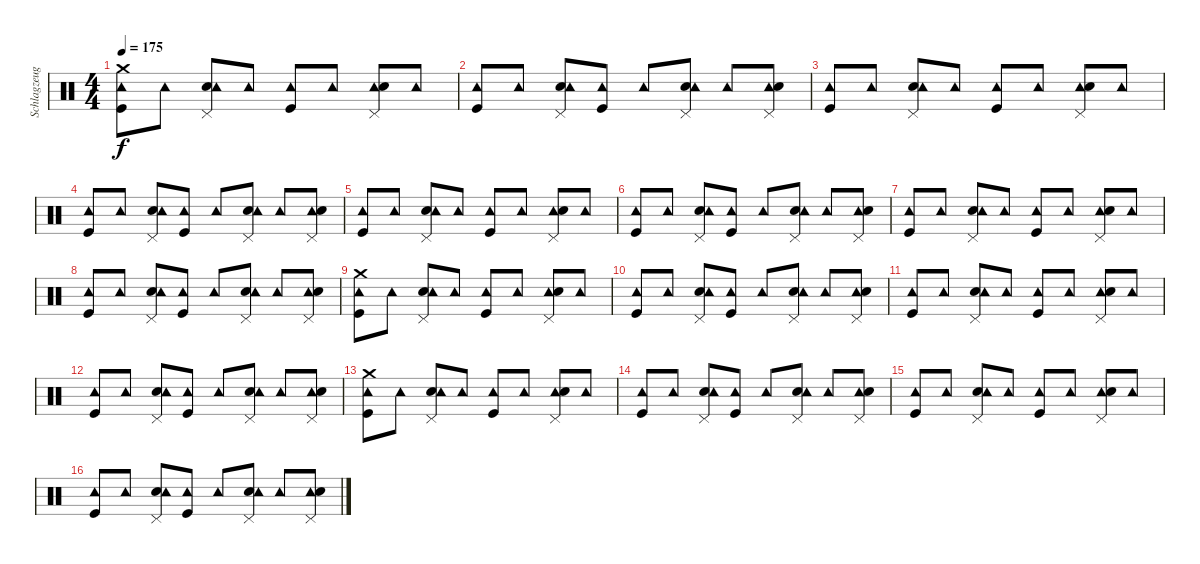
\track ("Schlagzeug - Bela B." "Schlagzeug") {instrument percussion}
\staff {score}
\articulation defaults
\ts (4 4)
\tempo 175
\clef neutral
\ks c
("Tambourine (hit)" "Kick (hit)" "Crash medium (hit)").8{dy f} "Tambourine (hit)".8 ("Electric Snare (hit)" "Tambourine (hit)" "Pedal Hi-Hat (hit)").8 "Tambourine (hit)".8 ("Tambourine (hit)" "Kick (hit)").8 "Tambourine (hit)".8 ("Pedal Hi-Hat (hit)" "Tambourine (hit)" "Electric Snare (hit)").8 "Tambourine (hit)".8 |
("Tambourine (hit)" "Kick (hit)").8 "Tambourine (hit)".8 ("Electric Snare (hit)" "Tambourine (hit)" "Pedal Hi-Hat (hit)").8 ("Tambourine (hit)" "Kick (hit)").8 "Tambourine (hit)".8 ("Electric Snare (hit)" "Pedal Hi-Hat (hit)" "Tambourine (hit)").8 "Tambourine (hit)".8 ("Tambourine (hit)" "Electric Snare (hit)" "Pedal Hi-Hat (hit)").8 |
("Tambourine (hit)" "Kick (hit)").8 "Tambourine (hit)".8 ("Electric Snare (hit)" "Tambourine (hit)" "Pedal Hi-Hat (hit)").8 "Tambourine (hit)".8 ("Tambourine (hit)" "Kick (hit)").8 "Tambourine (hit)".8 ("Pedal Hi-Hat (hit)" "Tambourine (hit)" "Electric Snare (hit)").8 "Tambourine (hit)".8 |
("Tambourine (hit)" "Kick (hit)").8 "Tambourine (hit)".8 ("Electric Snare (hit)" "Tambourine (hit)" "Pedal Hi-Hat (hit)").8 ("Tambourine (hit)" "Kick (hit)").8 "Tambourine (hit)".8 ("Electric Snare (hit)" "Pedal Hi-Hat (hit)" "Tambourine (hit)").8 "Tambourine (hit)".8 ("Tambourine (hit)" "Electric Snare (hit)" "Pedal Hi-Hat (hit)").8 |
("Tambourine (hit)" "Kick (hit)").8 "Tambourine (hit)".8 ("Electric Snare (hit)" "Tambourine (hit)" "Pedal Hi-Hat (hit)").8 "Tambourine (hit)".8 ("Tambourine (hit)" "Kick (hit)").8 "Tambourine (hit)".8 ("Pedal Hi-Hat (hit)" "Tambourine (hit)" "Electric Snare (hit)").8 "Tambourine (hit)".8 |
("Tambourine (hit)" "Kick (hit)").8 "Tambourine (hit)".8 ("Electric Snare (hit)" "Tambourine (hit)" "Pedal Hi-Hat (hit)").8 ("Tambourine (hit)" "Kick (hit)").8 "Tambourine (hit)".8 ("Electric Snare (hit)" "Pedal Hi-Hat (hit)" "Tambourine (hit)").8 "Tambourine (hit)".8 ("Tambourine (hit)" "Electric Snare (hit)" "Pedal Hi-Hat (hit)").8 |
("Tambourine (hit)" "Kick (hit)").8 "Tambourine (hit)".8 ("Electric Snare (hit)" "Tambourine (hit)" "Pedal Hi-Hat (hit)").8 "Tambourine (hit)".8 ("Tambourine (hit)" "Kick (hit)").8 "Tambourine (hit)".8 ("Pedal Hi-Hat (hit)" "Tambourine (hit)" "Electric Snare (hit)").8 "Tambourine (hit)".8 |
("Tambourine (hit)" "Kick (hit)").8 "Tambourine (hit)".8 ("Electric Snare (hit)" "Tambourine (hit)" "Pedal Hi-Hat (hit)").8 ("Tambourine (hit)" "Kick (hit)").8 "Tambourine (hit)".8 ("Electric Snare (hit)" "Pedal Hi-Hat (hit)" "Tambourine (hit)").8 "Tambourine (hit)".8 ("Tambourine (hit)" "Electric Snare (hit)" "Pedal Hi-Hat (hit)").8 |
("Tambourine (hit)" "Kick (hit)" "Crash medium (hit)").8 "Tambourine (hit)".8 ("Electric Snare (hit)" "Tambourine (hit)" "Pedal Hi-Hat (hit)").8 "Tambourine (hit)".8 ("Tambourine (hit)" "Kick (hit)").8 "Tambourine (hit)".8 ("Pedal Hi-Hat (hit)" "Tambourine (hit)" "Electric Snare (hit)").8 "Tambourine (hit)".8 |
("Tambourine (hit)" "Kick (hit)").8 "Tambourine (hit)".8 ("Electric Snare (hit)" "Tambourine (hit)" "Pedal Hi-Hat (hit)").8 ("Tambourine (hit)" "Kick (hit)").8 "Tambourine (hit)".8 ("Electric Snare (hit)" "Pedal Hi-Hat (hit)" "Tambourine (hit)").8 "Tambourine (hit)".8 ("Tambourine (hit)" "Electric Snare (hit)" "Pedal Hi-Hat (hit)").8 |
("Tambourine (hit)" "Kick (hit)").8 "Tambourine (hit)".8 ("Electric Snare (hit)" "Tambourine (hit)" "Pedal Hi-Hat (hit)").8 "Tambourine (hit)".8 ("Tambourine (hit)" "Kick (hit)").8 "Tambourine (hit)".8 ("Pedal Hi-Hat (hit)" "Tambourine (hit)" "Electric Snare (hit)").8 "Tambourine (hit)".8 |
("Tambourine (hit)" "Kick (hit)").8 "Tambourine (hit)".8 ("Electric Snare (hit)" "Tambourine (hit)" "Pedal Hi-Hat (hit)").8 ("Tambourine (hit)" "Kick (hit)").8 "Tambourine (hit)".8 ("Electric Snare (hit)" "Pedal Hi-Hat (hit)" "Tambourine (hit)").8 "Tambourine (hit)".8 ("Tambourine (hit)" "Electric Snare (hit)" "Pedal Hi-Hat (hit)").8 |
("Tambourine (hit)" "Kick (hit)" "Crash medium (hit)").8 "Tambourine (hit)".8 ("Electric Snare (hit)" "Tambourine (hit)" "Pedal Hi-Hat (hit)").8 "Tambourine (hit)".8 ("Tambourine (hit)" "Kick (hit)").8 "Tambourine (hit)".8 ("Pedal Hi-Hat (hit)" "Tambourine (hit)" "Electric Snare (hit)").8 "Tambourine (hit)".8 |
("Tambourine (hit)" "Kick (hit)").8 "Tambourine (hit)".8 ("Electric Snare (hit)" "Tambourine (hit)" "Pedal Hi-Hat (hit)").8 ("Tambourine (hit)" "Kick (hit)").8 "Tambourine (hit)".8 ("Electric Snare (hit)" "Pedal Hi-Hat (hit)" "Tambourine (hit)").8 "Tambourine (hit)".8 ("Tambourine (hit)" "Electric Snare (hit)" "Pedal Hi-Hat (hit)").8 |
("Tambourine (hit)" "Kick (hit)").8 "Tambourine (hit)".8 ("Electric Snare (hit)" "Tambourine (hit)" "Pedal Hi-Hat (hit)").8 "Tambourine (hit)".8 ("Tambourine (hit)" "Kick (hit)").8 "Tambourine (hit)".8 ("Pedal Hi-Hat (hit)" "Tambourine (hit)" "Electric Snare (hit)").8 "Tambourine (hit)".8 |
("Tambourine (hit)" "Kick (hit)").8 "Tambourine (hit)".8 ("Electric Snare (hit)" "Tambourine (hit)" "Pedal Hi-Hat (hit)").8 ("Tambourine (hit)" "Kick (hit)").8 "Tambourine (hit)".8 ("Electric Snare (hit)" "Pedal Hi-Hat (hit)" "Tambourine (hit)").8 "Tambourine (hit)".8 ("Tambourine (hit)" "Electric Snare (hit)" "Pedal Hi-Hat (hit)").8
